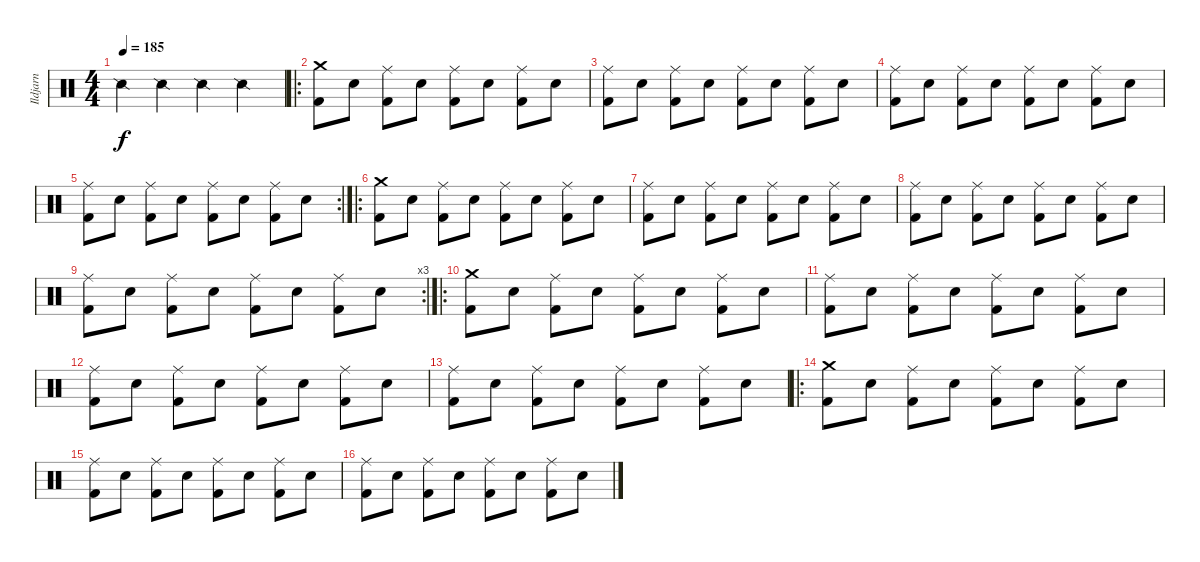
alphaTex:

\track ("Ildjarn" "Ildjarn") {instrument percussion}
\staff {score}
\articulation defaults
\ts (4 4)
\tempo 185
\clef neutral
\ks c "Snare (side stick) 2".4{dy f} "Snare (side stick) 2".4 "Snare (side stick) 2".4 "Snare (side stick) 2".4
|
\ro
("Crash medium (hit)" "Kick (hit) 2").8 "Snare (hit) 2".8 ("Ride (middle)" "Kick (hit) 2").8 "Snare (hit) 2".8 ("Ride (middle)" "Kick (hit) 2").8 "Snare (hit) 2".8 ("Ride (middle)" "Kick (hit) 2").8 "Snare (hit) 2".8 |
("Ride (middle)" "Kick (hit) 2").8 "Snare (hit) 2".8 ("Ride (middle)" "Kick (hit) 2").8 "Snare (hit) 2".8 ("Ride (middle)" "Kick (hit) 2").8 "Snare (hit) 2".8 ("Ride (middle)" "Kick (hit) 2").8 "Snare (hit) 2".8 |
("Ride (middle)" "Kick (hit) 2").8 "Snare (hit) 2".8 ("Ride (middle)" "Kick (hit) 2").8 "Snare (hit) 2".8 ("Ride (middle)" "Kick (hit) 2").8 "Snare (hit) 2".8 ("Ride (middle)" "Kick (hit) 2").8 "Snare (hit) 2".8 |
\rc 2
("Ride (middle)" "Kick (hit) 2").8 "Snare (hit) 2".8 ("Ride (middle)" "Kick (hit) 2").8 "Snare (hit) 2".8 ("Ride (middle)" "Kick (hit) 2").8 "Snare (hit) 2".8 ("Ride (middle)" "Kick (hit) 2").8 "Snare (hit) 2".8 |
\ro
("Crash medium (hit)" "Kick (hit) 2").8 "Snare (hit) 2".8 ("Ride (middle)" "Kick (hit) 2").8 "Snare (hit) 2".8 ("Ride (middle)" "Kick (hit) 2").8 "Snare (hit) 2".8 ("Ride (middle)" "Kick (hit) 2").8 "Snare (hit) 2".8 |
("Ride (middle)" "Kick (hit) 2").8 "Snare (hit) 2".8 ("Ride (middle)" "Kick (hit) 2").8 "Snare (hit) 2".8 ("Ride (middle)" "Kick (hit) 2").8 "Snare (hit) 2".8 ("Ride (middle)" "Kick (hit) 2").8 "Snare (hit) 2".8 |
("Ride (middle)" "Kick (hit) 2").8 "Snare (hit) 2".8 ("Ride (middle)" "Kick (hit) 2").8 "Snare (hit) 2".8 ("Ride (middle)" "Kick (hit) 2").8 "Snare (hit) 2".8 ("Ride (middle)" "Kick (hit) 2").8 "Snare (hit) 2".8 |
\rc 3
("Ride (middle)" "Kick (hit) 2").8 "Snare (hit) 2".8 ("Ride (middle)" "Kick (hit) 2").8 "Snare (hit) 2".8 ("Ride (middle)" "Kick (hit) 2").8 "Snare (hit) 2".8 ("Ride (middle)" "Kick (hit) 2").8 "Snare (hit) 2".8 |
\ro
("Crash medium (hit)" "Kick (hit) 2").8 "Snare (hit) 2".8 ("Ride (middle)" "Kick (hit) 2").8 "Snare (hit) 2".8 ("Ride (middle)" "Kick (hit) 2").8 "Snare (hit) 2".8 ("Ride (middle)" "Kick (hit) 2").8 "Snare (hit) 2".8 |
("Ride (middle)" "Kick (hit) 2").8 "Snare (hit) 2".8 ("Ride (middle)" "Kick (hit) 2").8 "Snare (hit) 2".8 ("Ride (middle)" "Kick (hit) 2").8 "Snare (hit) 2".8 ("Ride (middle)" "Kick (hit) 2").8 "Snare (hit) 2".8 |
("Ride (middle)" "Kick (hit) 2").8 "Snare (hit) 2".8 ("Ride (middle)" "Kick (hit) 2").8 "Snare (hit) 2".8 ("Ride (middle)" "Kick (hit) 2").8 "Snare (hit) 2".8 ("Ride (middle)" "Kick (hit) 2").8 "Snare (hit) 2".8 |
("Ride (middle)" "Kick (hit) 2").8 "Snare (hit) 2".8 ("Ride (middle)" "Kick (hit) 2").8 "Snare (hit) 2".8 ("Ride (middle)" "Kick (hit) 2").8 "Snare (hit) 2".8 ("Ride (middle)" "Kick (hit) 2").8 "Snare (hit) 2".8 |
\ro
("Crash medium (hit)" "Kick (hit) 2").8 "Snare (hit) 2".8 ("Ride (middle)" "Kick (hit) 2").8 "Snare (hit) 2".8 ("Ride (middle)" "Kick (hit) 2").8 "Snare (hit) 2".8 ("Ride (middle)" "Kick (hit) 2").8 "Snare (hit) 2".8 |
("Ride (middle)" "Kick (hit) 2").8 "Snare (hit) 2".8 ("Ride (middle)" "Kick (hit) 2").8 "Snare (hit) 2".8 ("Ride (middle)" "Kick (hit) 2").8 "Snare (hit) 2".8 ("Ride (middle)" "Kick (hit) 2").8 "Snare (hit) 2".8 |
("Ride (middle)" "Kick (hit) 2").8 "Snare (hit) 2".8 ("Ride (middle)" "Kick (hit) 2").8 "Snare (hit) 2".8 ("Ride (middle)" "Kick (hit) 2").8 "Snare (hit) 2".8 ("Ride (middle)" "Kick (hit) 2").8 "Snare (hit) 2".8
